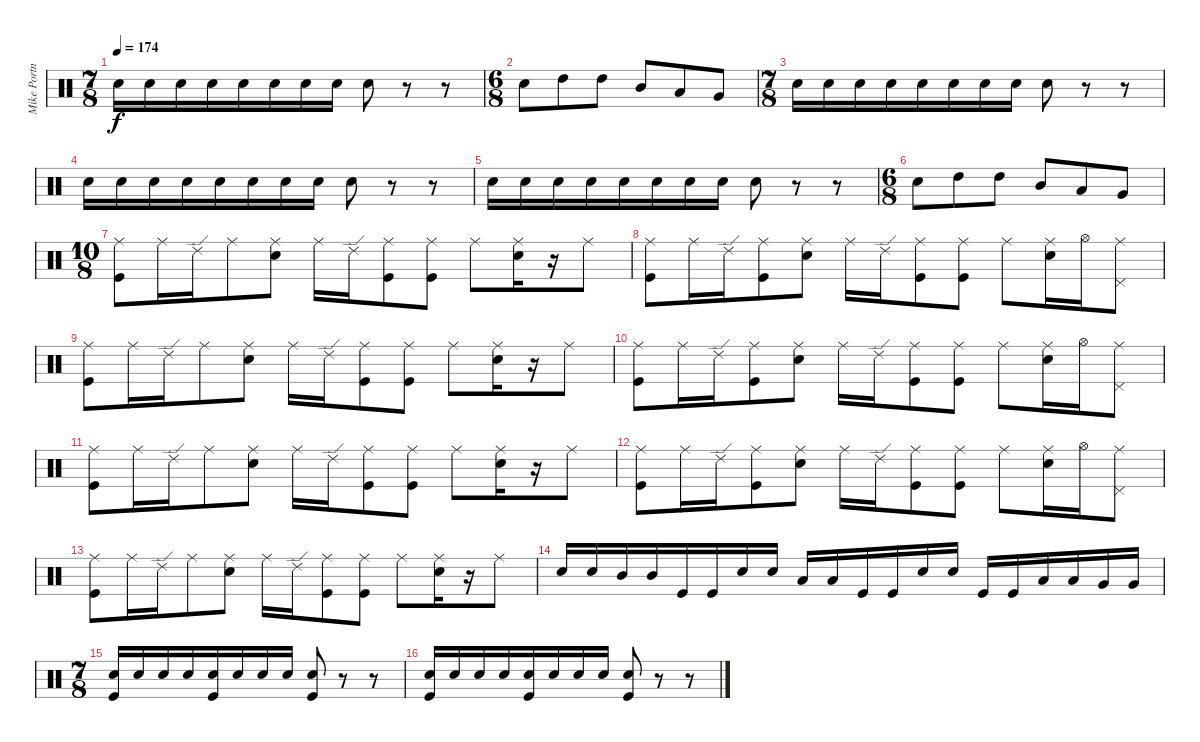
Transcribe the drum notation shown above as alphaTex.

\track ("Mike Portnoy" "Mike Portn") {instrument percussion}
\staff {score}
\articulation defaults
\ts (7 8)
\tempo 174
\clef neutral
\ks c "Snare (hit) 2".16{dy f} "Snare (hit) 2".16 "Snare (hit) 2".16 "Snare (hit) 2".16 "Snare (hit) 2".16 "Snare (hit) 2".16 "Snare (hit) 2".16 "Snare (hit) 2".16 "Snare (hit) 2".8
r.8 r.8 |
\ts (6 8)
"Snare (hit) 2".8 "High Tom (hit)".8 "High Tom (hit)".8 "Mid Tom (hit)".8 "Low Tom (hit)".8 "Very Low Tom (hit)".8 |
\ts (7 8)
"Snare (hit) 2".16 "Snare (hit) 2".16 "Snare (hit) 2".16 "Snare (hit) 2".16 "Snare (hit) 2".16 "Snare (hit) 2".16 "Snare (hit) 2".16 "Snare (hit) 2".16 "Snare (hit) 2".8 r.8 r.8 |
"Snare (hit) 2".16 "Snare (hit) 2".16 "Snare (hit) 2".16 "Snare (hit) 2".16 "Snare (hit) 2".16 "Snare (hit) 2".16 "Snare (hit) 2".16 "Snare (hit) 2".16 "Snare (hit) 2".8 r.8 r.8 |
"Snare (hit) 2".16 "Snare (hit) 2".16 "Snare (hit) 2".16 "Snare (hit) 2".16 "Snare (hit) 2".16 "Snare (hit) 2".16 "Snare (hit) 2".16 "Snare (hit) 2".16 "Snare (hit) 2".8 r.8 r.8 |
\ts (6 8)
"Snare (hit) 2".8 "High Tom (hit)".8 "High Tom (hit)".8 "Mid Tom (hit)".8 "Low Tom (hit)".8 "Very Low Tom (hit)".8 |
\ts (10 8)
("Ride (middle)" "Kick (hit)").8 "Ride (middle)".16 "Ride (edge) 2".16 "Ride (middle)".8 ("Snare (hit) 2" "Ride (middle)").8 "Ride (middle)".16 "Ride (edge) 2".16 ("Ride (middle)" "Kick (hit)").8 ("Ride (middle)" "Kick (hit)").8 "Ride (middle)".8 ("Snare (hit) 2" "Ride (middle)").16 r.16 "Ride (middle)".8 |
("Ride (middle)" "Kick (hit)").8 "Ride (middle)".16 "Ride (edge) 2".16 ("Ride (middle)" "Kick (hit)").8 ("Snare (hit) 2" "Ride (middle)").8 "Ride (middle)".16 "Ride (edge) 2".16 ("Ride (middle)" "Kick (hit)").8 ("Ride (middle)" "Kick (hit)").8 "Ride (middle)".8 ("Snare (hit) 2" "Ride (middle)").16 "Hi-Hat (open)".16 ("Ride (middle)" "Pedal Hi-Hat (hit)").8 |
("Ride (middle)" "Kick (hit)").8 "Ride (middle)".16 "Ride (edge) 2".16 "Ride (middle)".8 ("Snare (hit) 2" "Ride (middle)").8 "Ride (middle)".16 "Ride (edge) 2".16 ("Ride (middle)" "Kick (hit)").8 ("Ride (middle)" "Kick (hit)").8 "Ride (middle)".8 ("Snare (hit) 2" "Ride (middle)").16 r.16 "Ride (middle)".8 |
("Ride (middle)" "Kick (hit)").8 "Ride (middle)".16 "Ride (edge) 2".16 ("Ride (middle)" "Kick (hit)").8 ("Snare (hit) 2" "Ride (middle)").8 "Ride (middle)".16 "Ride (edge) 2".16 ("Ride (middle)" "Kick (hit)").8 ("Ride (middle)" "Kick (hit)").8 "Ride (middle)".8 ("Snare (hit) 2" "Ride (middle)").16 "Hi-Hat (open)".16 ("Ride (middle)" "Pedal Hi-Hat (hit)").8 |
("Ride (middle)" "Kick (hit)").8 "Ride (middle)".16 "Ride (edge) 2".16 "Ride (middle)".8 ("Snare (hit) 2" "Ride (middle)").8 "Ride (middle)".16 "Ride (edge) 2".16 ("Ride (middle)" "Kick (hit)").8 ("Ride (middle)" "Kick (hit)").8 "Ride (middle)".8 ("Snare (hit) 2" "Ride (middle)").16 r.16 "Ride (middle)".8 |
("Ride (middle)" "Kick (hit)").8 "Ride (middle)".16 "Ride (edge) 2".16 ("Ride (middle)" "Kick (hit)").8 ("Snare (hit) 2" "Ride (middle)").8 "Ride (middle)".16 "Ride (edge) 2".16 ("Ride (middle)" "Kick (hit)").8 ("Ride (middle)" "Kick (hit)").8 "Ride (middle)".8 ("Snare (hit) 2" "Ride (middle)").16 "Hi-Hat (open)".16 ("Ride (middle)" "Pedal Hi-Hat (hit)").8 |
("Ride (middle)" "Kick (hit)").8 "Ride (middle)".16 "Ride (edge) 2".16 "Ride (middle)".8 ("Snare (hit) 2" "Ride (middle)").8 "Ride (middle)".16 "Ride (edge) 2".16 ("Ride (middle)" "Kick (hit)").8 ("Ride (middle)" "Kick (hit)").8 "Ride (middle)".8 ("Snare (hit) 2" "Ride (middle)").16 r.16 "Ride (middle)".8 |
"Snare (hit) 2".16 "Snare (hit) 2".16 "Mid Tom (hit)".16 "Mid Tom (hit)".16 "Kick (hit)".16 "Kick (hit)".16 "Snare (hit) 2".16 "Snare (hit) 2".16 "Low Tom (hit)".16 "Low Tom (hit)".16 "Kick (hit)".16 "Kick (hit)".16 "Snare (hit) 2".16 "Snare (hit) 2".16 "Kick (hit)".16 "Kick (hit)".16 "Low Tom (hit)".16 "Low Tom (hit)".16 "Very Low Tom (hit)".16 "Very Low Tom (hit)".16 |
\ts (7 8)
("Snare (hit) 2" "Kick (hit)").16 "Snare (hit) 2".16 "Snare (hit) 2".16 "Snare (hit) 2".16 ("Snare (hit) 2" "Kick (hit)").16 "Snare (hit) 2".16 "Snare (hit) 2".16 "Snare (hit) 2".16 ("Snare (hit) 2" "Kick (hit)").8 r.8 r.8 |
("Snare (hit) 2" "Kick (hit)").16 "Snare (hit) 2".16 "Snare (hit) 2".16 "Snare (hit) 2".16 ("Snare (hit) 2" "Kick (hit)").16 "Snare (hit) 2".16 "Snare (hit) 2".16 "Snare (hit) 2".16 ("Snare (hit) 2" "Kick (hit)").8 r.8 r.8
